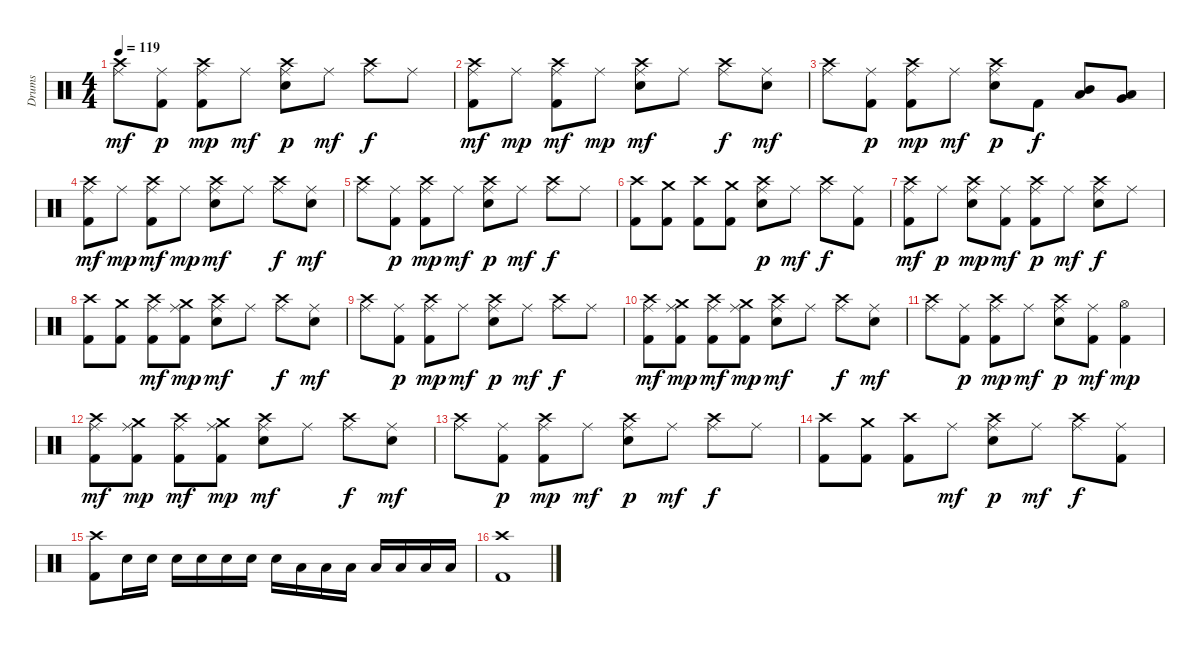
\track ("Drums" "Drums") {instrument percussion}
\staff {score}
\articulation defaults
\ts (4 4)
\tempo 119
\clef neutral
\ks c
("Crash high (hit)" "Ride (middle)").8{dy mf} ("Ride (middle)" "Kick (hit) 2").8{dy p} ("Crash high (hit)" "Ride (middle)" "Kick (hit) 2").8{dy mp} "Ride (middle)".8{dy mf} ("Crash high (hit)" "Ride (middle)" "Electric Snare (hit)").8{dy p} "Ride (middle)".8{dy mf} ("Crash high (hit)" "Ride (middle)").8{dy f} "Ride (middle)".8 |
("Crash high (hit)" "Ride (middle)" "Kick (hit) 2").8{dy mf} "Ride (middle)".8{dy mp} ("Crash high (hit)" "Ride (middle)" "Kick (hit) 2").8{dy mf} "Ride (middle)".8{dy mp} ("Crash high (hit)" "Ride (middle)" "Electric Snare (hit)").8{dy mf} "Ride (middle)".8 ("Crash high (hit)" "Ride (middle)").8{dy f} ("Ride (middle)" "Electric Snare (hit)").8{dy mf} |
("Crash high (hit)" "Ride (middle)").8 ("Ride (middle)" "Kick (hit) 2").8{dy p} ("Crash high (hit)" "Ride (middle)" "Kick (hit) 2").8{dy mp} "Ride (middle)".8{dy mf} ("Crash high (hit)" "Ride (middle)" "Electric Snare (hit)").8{dy p} "Kick (hit) 2".8{dy f} ("Mid Tom (hit)" "Low Tom (hit)").8{bd 120} ("Low Tom (hit)" "Very Low Tom (hit)").8{bd 120} |
("Crash high (hit)" "Ride (middle)" "Kick (hit) 2").8{dy mf} "Ride (middle)".8{dy mp} ("Crash high (hit)" "Ride (middle)" "Kick (hit) 2").8{dy mf} "Ride (middle)".8{dy mp} ("Crash high (hit)" "Ride (middle)" "Electric Snare (hit)").8{dy mf} "Ride (middle)".8 ("Crash high (hit)" "Ride (middle)").8{dy f} ("Ride (middle)" "Electric Snare (hit)").8{dy mf} |
("Crash high (hit)" "Ride (middle)").8 ("Ride (middle)" "Kick (hit) 2").8{dy p} ("Crash high (hit)" "Ride (middle)" "Kick (hit) 2").8{dy mp} "Ride (middle)".8{dy mf} ("Crash high (hit)" "Ride (middle)" "Electric Snare (hit)").8{dy p} "Ride (middle)".8{dy mf} ("Crash high (hit)" "Ride (middle)").8{dy f} "Ride (middle)".8 |
("Crash high (hit)" "Kick (hit) 2").8 ("Crash medium (hit)" "Kick (hit) 2").8 ("Crash high (hit)" "Kick (hit) 2").8 ("Crash medium (hit)" "Kick (hit) 2").8 ("Crash high (hit)" "Ride (middle)" "Electric Snare (hit)").8{dy p} "Ride (middle)".8{dy mf} ("Crash high (hit)" "Ride (middle)").8{dy f} ("Ride (middle)" "Kick (hit) 2").8 |
("Crash high (hit)" "Ride (middle)" "Kick (hit) 2").8{dy mf} "Ride (middle)".8{dy p} ("Crash high (hit)" "Ride (middle)" "Electric Snare (hit)").8{dy mp} ("Ride (middle)" "Kick (hit) 2").8{dy mf} ("Crash high (hit)" "Ride (middle)" "Kick (hit) 2").8{dy p} "Ride (middle)".8{dy mf} ("Crash high (hit)" "Ride (middle)" "Electric Snare (hit)").8{dy f} "Ride (middle)".8 |
("Crash high (hit)" "Kick (hit) 2").8 ("Crash medium (hit)" "Kick (hit) 2").8 ("Crash high (hit)" "Ride (middle)" "Kick (hit) 2").8{dy mf} ("Crash medium (hit)" "Ride (middle)" "Kick (hit) 2").8{dy mp} ("Crash high (hit)" "Ride (middle)" "Electric Snare (hit)").8{dy mf} "Ride (middle)".8 ("Crash high (hit)" "Ride (middle)").8{dy f} ("Ride (middle)" "Electric Snare (hit)").8{dy mf} |
("Crash high (hit)" "Ride (middle)").8 ("Ride (middle)" "Kick (hit) 2").8{dy p} ("Crash high (hit)" "Ride (middle)" "Kick (hit) 2").8{dy mp} "Ride (middle)".8{dy mf} ("Crash high (hit)" "Ride (middle)" "Electric Snare (hit)").8{dy p} "Ride (middle)".8{dy mf} ("Crash high (hit)" "Ride (middle)").8{dy f} "Ride (middle)".8 |
("Crash high (hit)" "Ride (middle)" "Kick (hit) 2").8{dy mf} ("Crash medium (hit)" "Ride (middle)" "Kick (hit) 2").8{dy mp} ("Crash high (hit)" "Ride (middle)" "Kick (hit) 2").8{dy mf} ("Crash medium (hit)" "Ride (middle)" "Kick (hit) 2").8{dy mp} ("Crash high (hit)" "Ride (middle)" "Electric Snare (hit)").8{dy mf} "Ride (middle)".8 ("Crash high (hit)" "Ride (middle)").8{dy f} ("Ride (middle)" "Electric Snare (hit)").8{dy mf} |
("Crash high (hit)" "Ride (middle)").8 ("Ride (middle)" "Kick (hit) 2").8{dy p} ("Crash high (hit)" "Ride (middle)" "Kick (hit) 2").8{dy mp} "Ride (middle)".8{dy mf} ("Crash high (hit)" "Ride (middle)" "Electric Snare (hit)").8{dy p} ("Ride (middle)" "Kick (hit) 2").8{dy mf} ("Hi-Hat (open)" "Kick (hit) 2").4{dy mp} |
("Crash high (hit)" "Ride (middle)" "Kick (hit) 2").8{dy mf} ("Crash medium (hit)" "Ride (middle)" "Kick (hit) 2").8{dy mp} ("Crash high (hit)" "Ride (middle)" "Kick (hit) 2").8{dy mf} ("Crash medium (hit)" "Ride (middle)" "Kick (hit) 2").8{dy mp} ("Crash high (hit)" "Ride (middle)" "Electric Snare (hit)").8{dy mf} "Ride (middle)".8 ("Crash high (hit)" "Ride (middle)").8{dy f} ("Ride (middle)" "Electric Snare (hit)").8{dy mf} |
("Crash high (hit)" "Ride (middle)").8 ("Ride (middle)" "Kick (hit) 2").8{dy p} ("Crash high (hit)" "Ride (middle)" "Kick (hit) 2").8{dy mp} "Ride (middle)".8{dy mf} ("Crash high (hit)" "Ride (middle)" "Electric Snare (hit)").8{dy p} "Ride (middle)".8{dy mf} ("Crash high (hit)" "Ride (middle)").8{dy f} "Ride (middle)".8 |
("Crash high (hit)" "Kick (hit) 2").8 ("Crash medium (hit)" "Kick (hit) 2").8 ("Crash high (hit)" "Kick (hit) 2").8 "Ride (middle)".8{dy mf} ("Crash high (hit)" "Ride (middle)" "Electric Snare (hit)").8{dy p} "Ride (middle)".8{dy mf} ("Crash high (hit)" "Ride (middle)").8{dy f} ("Ride (middle)" "Kick (hit) 2").8 |
("Crash high (hit)" "Kick (hit) 2").8 "Electric Snare (hit)".16 "Electric Snare (hit)".16 "Electric Snare (hit)".16 "Electric Snare (hit)".16 "Electric Snare (hit)".16 "Electric Snare (hit)".16 "Electric Snare (hit)".16 "Low Tom (hit)".16 "Low Tom (hit)".16 "Low Tom (hit)".16 "Low Tom (hit)".16 "Low Floor Tom (hit)".16 "Low Floor Tom (hit)".16 "Low Floor Tom (hit)".16 |
("Crash high (hit)" "Kick (hit) 2").1
